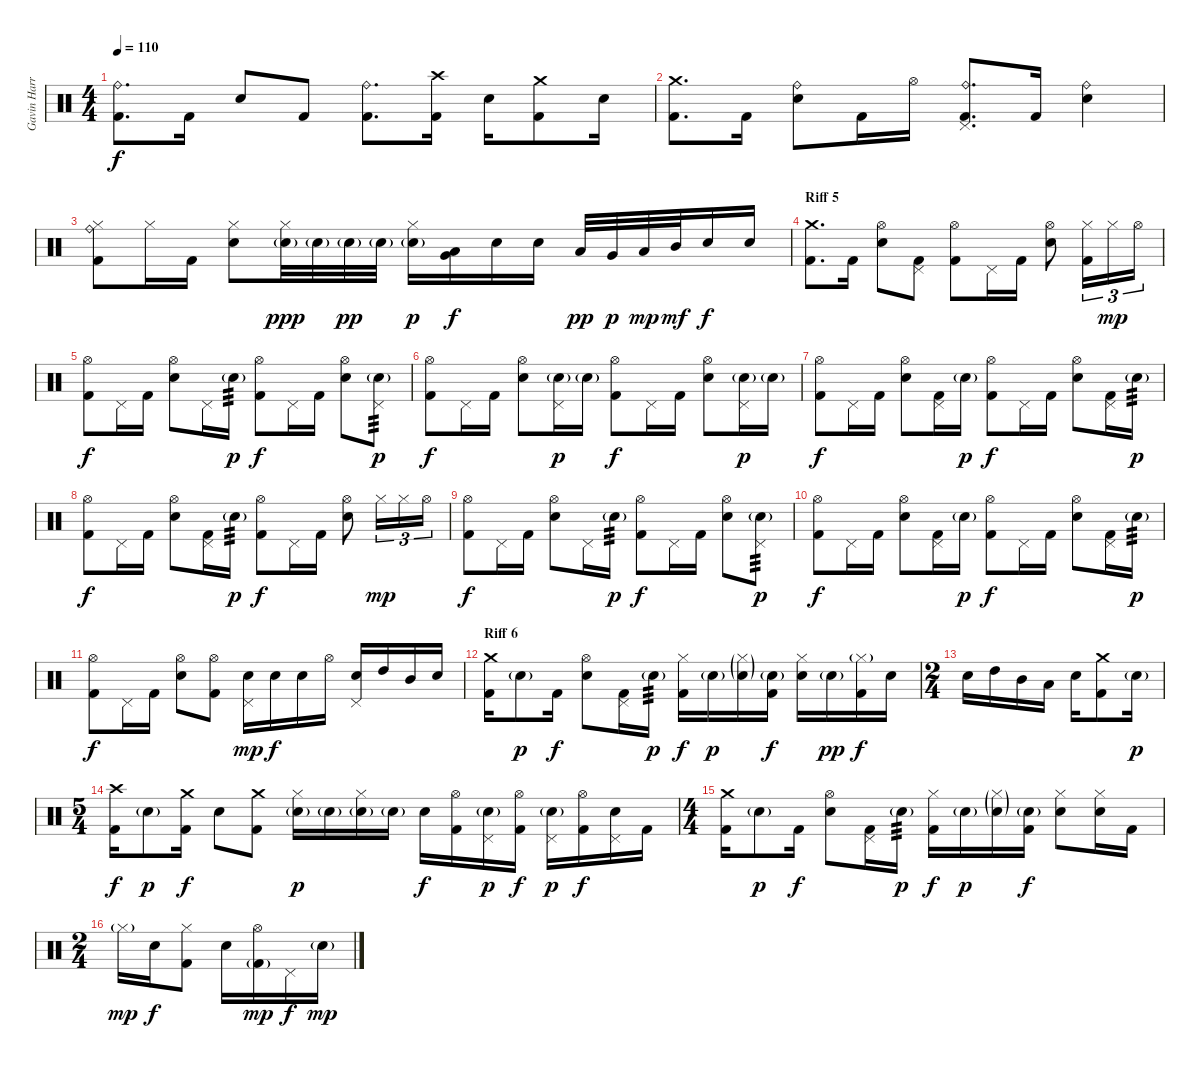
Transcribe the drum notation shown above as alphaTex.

\track ("Gavin Harrison - Drums" "Gavin Harr") {instrument percussion}
\staff {score}
\articulation defaults
\ts (4 4)
\tempo 110
\clef neutral
\ks c
("Ride (bell)" "Kick (hit) 2").8{d dy f} "Kick (hit) 2".16 "Electric Snare (hit)".8 "Kick (hit) 2".8 ("Ride (bell)" "Kick (hit) 2").8{d} ("Crash high (hit)" "Kick (hit) 2").16 "Electric Snare (hit)".16 ("Crash medium (hit)" "Kick (hit) 2").8 "Electric Snare (hit)".16 |
("Crash medium (hit)" "Kick (hit) 2").8{d} "Kick (hit) 2".16 ("Ride (bell)" "Electric Snare (hit)").8 "Kick (hit) 2".16 "Hi-Hat (open)".16 ("Ride (bell)" "Pedal Hi-Hat (hit)" "Kick (hit) 2").8{d} "Kick (hit) 2".16 ("Ride (bell)" "Electric Snare (hit)").4 |
("Ride (bell)" "Hi-Hat (closed)" "Kick (hit) 2").8 "Hi-Hat (closed)".16 "Kick (hit) 2".16 ("Hi-Hat (closed)" "Electric Snare (hit)").8 ("Hi-Hat (closed)" "Electric Snare (hit)"{g}).32{dy ppp} "Electric Snare (hit)"{g}.32 "Electric Snare (hit)"{g}.32{dy pp} "Electric Snare (hit)"{g}.32 ("Hi-Hat (closed)" "Electric Snare (hit)"{g}).16{dy p} ("Low Tom (hit)" "Very Low Tom (hit)").16{dy f} "Electric Snare (hit)".16 "Electric Snare (hit)".16 "Low Floor Tom (hit)".32{dy pp} "Very Low Tom (hit)".32{dy p} "Low Tom (hit)".32{dy mp} "Mid Tom (hit)".32{dy mf} "Electric Snare (hit)".16{dy f} "Electric Snare (hit)".16 |
\section ("" "Riff 5")
("Crash medium (hit)" "Kick (hit) 2").8{d} "Kick (hit) 2".16 ("Hi-Hat (open)" "Electric Snare (hit)").8 ("Pedal Hi-Hat (hit)" "Kick (hit) 2").8 ("Hi-Hat (open)" "Kick (hit) 2").8 "Pedal Hi-Hat (hit)".16 "Kick (hit) 2".16 ("Hi-Hat (open)" "Electric Snare (hit)").8 ("Hi-Hat (closed)" "Kick (hit) 2").16{tu (3 2)} "Hi-Hat (closed)".16{tu (3 2) dy mp} "Hi-Hat (open)".16{tu (3 2)} |
("Hi-Hat (open)" "Kick (hit) 2").8{dy f} "Pedal Hi-Hat (hit)".16 "Kick (hit) 2".16 ("Hi-Hat (open)" "Electric Snare (hit)").8 "Pedal Hi-Hat (hit)".16 "Electric Snare (hit)"{g}.16{tp 3 dy p} ("Hi-Hat (open)" "Kick (hit) 2").8{dy f} "Pedal Hi-Hat (hit)".16 "Kick (hit) 2".16 ("Hi-Hat (open)" "Electric Snare (hit)").8 ("Pedal Hi-Hat (hit)" "Electric Snare (hit)"{g}).8{tp 3 dy p} |
("Hi-Hat (open)" "Kick (hit) 2").8{dy f} "Pedal Hi-Hat (hit)".16 "Kick (hit) 2".16 ("Hi-Hat (open)" "Electric Snare (hit)").8 ("Pedal Hi-Hat (hit)" "Electric Snare (hit)"{g}).16{dy p} "Electric Snare (hit)"{g}.16 ("Hi-Hat (open)" "Kick (hit) 2").8{dy f} "Pedal Hi-Hat (hit)".16 "Kick (hit) 2".16 ("Hi-Hat (open)" "Electric Snare (hit)").8 ("Pedal Hi-Hat (hit)" "Electric Snare (hit)"{g}).16{dy p} "Electric Snare (hit)"{g}.16 |
("Hi-Hat (open)" "Kick (hit) 2").8{dy f} "Pedal Hi-Hat (hit)".16 "Kick (hit) 2".16 ("Hi-Hat (open)" "Electric Snare (hit)").8 ("Pedal Hi-Hat (hit)" "Kick (hit) 2").16 "Electric Snare (hit)"{g}.16{dy p} ("Hi-Hat (open)" "Kick (hit) 2").8{dy f} "Pedal Hi-Hat (hit)".16 "Kick (hit) 2".16 ("Hi-Hat (open)" "Electric Snare (hit)").8 ("Pedal Hi-Hat (hit)" "Kick (hit) 2").16 "Electric Snare (hit)"{g}.16{tp 3 dy p} |
("Hi-Hat (open)" "Kick (hit) 2").8{dy f} "Pedal Hi-Hat (hit)".16 "Kick (hit) 2".16 ("Hi-Hat (open)" "Electric Snare (hit)").8 ("Pedal Hi-Hat (hit)" "Kick (hit) 2").16 "Electric Snare (hit)"{g}.16{tp 3 dy p} ("Hi-Hat (open)" "Kick (hit) 2").8{dy f} "Pedal Hi-Hat (hit)".16 "Kick (hit) 2".16 ("Hi-Hat (open)" "Electric Snare (hit)").8 "Hi-Hat (closed)".16{tu (3 2) dy mp} "Hi-Hat (closed)".16{tu (3 2)} "Hi-Hat (open)".16{tu (3 2)} |
("Hi-Hat (open)" "Kick (hit) 2").8{dy f} "Pedal Hi-Hat (hit)".16 "Kick (hit) 2".16 ("Hi-Hat (open)" "Electric Snare (hit)").8 "Pedal Hi-Hat (hit)".16 "Electric Snare (hit)"{g}.16{tp 3 dy p} ("Hi-Hat (open)" "Kick (hit) 2").8{dy f} "Pedal Hi-Hat (hit)".16 "Kick (hit) 2".16 ("Hi-Hat (open)" "Electric Snare (hit)").8 ("Pedal Hi-Hat (hit)" "Electric Snare (hit)"{g}).8{tp 3 dy p} |
("Hi-Hat (open)" "Kick (hit) 2").8{dy f} "Pedal Hi-Hat (hit)".16 "Kick (hit) 2".16 ("Hi-Hat (open)" "Electric Snare (hit)").8 ("Pedal Hi-Hat (hit)" "Kick (hit) 2").16 "Electric Snare (hit)"{g}.16{dy p} ("Hi-Hat (open)" "Kick (hit) 2").8{dy f} "Pedal Hi-Hat (hit)".16 "Kick (hit) 2".16 ("Hi-Hat (open)" "Electric Snare (hit)").8 ("Pedal Hi-Hat (hit)" "Kick (hit) 2").16 "Electric Snare (hit)"{g}.16{tp 3 dy p} |
("Hi-Hat (open)" "Kick (hit) 2").8{dy f} "Pedal Hi-Hat (hit)".16 "Kick (hit) 2".16 ("Hi-Hat (open)" "Electric Snare (hit)").8 ("Hi-Hat (open)" "Kick (hit) 2").8 ("Pedal Hi-Hat (hit)" "Electric Snare (hit)").16{dy mp} "Electric Snare (hit)".16{dy f} "Electric Snare (hit)".16 "Hi-Hat (open)".16 ("Pedal Hi-Hat (hit)" "Electric Snare (hit)").16 "High Tom (hit)".16 "Mid Tom (hit)".16 "Electric Snare (hit)".16 |
\section ("" "Riff 6")
("Crash medium (hit)" "Kick (hit) 2").16 "Electric Snare (hit)"{g}.8{dy p} "Kick (hit) 2".16{dy f} ("Hi-Hat (open)" "Electric Snare (hit)").8 ("Pedal Hi-Hat (hit)" "Kick (hit) 2").16 "Electric Snare (hit)"{g}.16{tp 3 dy p} ("Hi-Hat (closed)" "Kick (hit) 2").16{dy f} "Electric Snare (hit)"{g}.16{dy p} ("Hi-Hat (closed)"{g} "Electric Snare (hit)"{g}).16 ("Electric Snare (hit)"{g} "Kick (hit) 2").16{dy f} ("Hi-Hat (closed)" "Electric Snare (hit)").16 "Electric Snare (hit)"{g}.16{dy pp} ("Hi-Hat (closed)"{g} "Kick (hit) 2").16{dy f} "Electric Snare (hit)".16 |
\ts (2 4)
"Electric Snare (hit)".16 "High Tom (hit)".16 "Mid Tom (hit)".16 "Low Tom (hit)".16 "Electric Snare (hit)".16 ("Crash medium (hit)" "Kick (hit) 2").8 "Electric Snare (hit)"{g}.16{dy p} |
\ts (5 4)
("Crash high (hit)" "Kick (hit) 2").16{dy f} "Electric Snare (hit)"{g}.8{dy p} ("Crash medium (hit)" "Kick (hit) 2").16{dy f} "Electric Snare (hit)".8 ("Crash medium (hit)" "Kick (hit) 2").8 ("Hi-Hat (closed)" "Electric Snare (hit)"{g}).16{dy p} "Electric Snare (hit)"{g}.16 ("Hi-Hat (closed)" "Electric Snare (hit)"{g}).16 "Electric Snare (hit)"{g}.16 "Electric Snare (hit)".16{dy f} ("Hi-Hat (open)" "Kick (hit) 2").16 ("Pedal Hi-Hat (hit)" "Electric Snare (hit)"{g}).16{dy p} ("Hi-Hat (open)" "Kick (hit) 2").16{dy f} ("Pedal Hi-Hat (hit)" "Electric Snare (hit)"{g}).16{dy p} ("Hi-Hat (open)" "Kick (hit) 2").16{dy f} ("Pedal Hi-Hat (hit)" "Electric Snare (hit)").16 "Kick (hit) 2".16 |
\ts (4 4)
("Crash medium (hit)" "Kick (hit) 2").16 "Electric Snare (hit)"{g}.8{dy p} "Kick (hit) 2".16{dy f} ("Hi-Hat (open)" "Electric Snare (hit)").8 ("Pedal Hi-Hat (hit)" "Kick (hit) 2").16 "Electric Snare (hit)"{g}.16{tp 3 dy p} ("Hi-Hat (closed)" "Kick (hit) 2").16{dy f} "Electric Snare (hit)"{g}.16{dy p} ("Hi-Hat (closed)"{g} "Electric Snare (hit)"{g}).16 ("Electric Snare (hit)"{g} "Kick (hit) 2").16{dy f} ("Hi-Hat (closed)" "Electric Snare (hit)").8 ("Hi-Hat (closed)" "Electric Snare (hit)").16 "Kick (hit) 2".16 |
\ts (2 4)
"Hi-Hat (closed)"{g}.16{dy mp} "Electric Snare (hit)".16{dy f} ("Hi-Hat (closed)" "Kick (hit) 2").8 "Electric Snare (hit)".16 ("Hi-Hat (open)" "Kick (hit) 2"{g}).16{dy mp} "Pedal Hi-Hat (hit)".16{dy f} "Electric Snare (hit)"{g}.16{dy mp}
